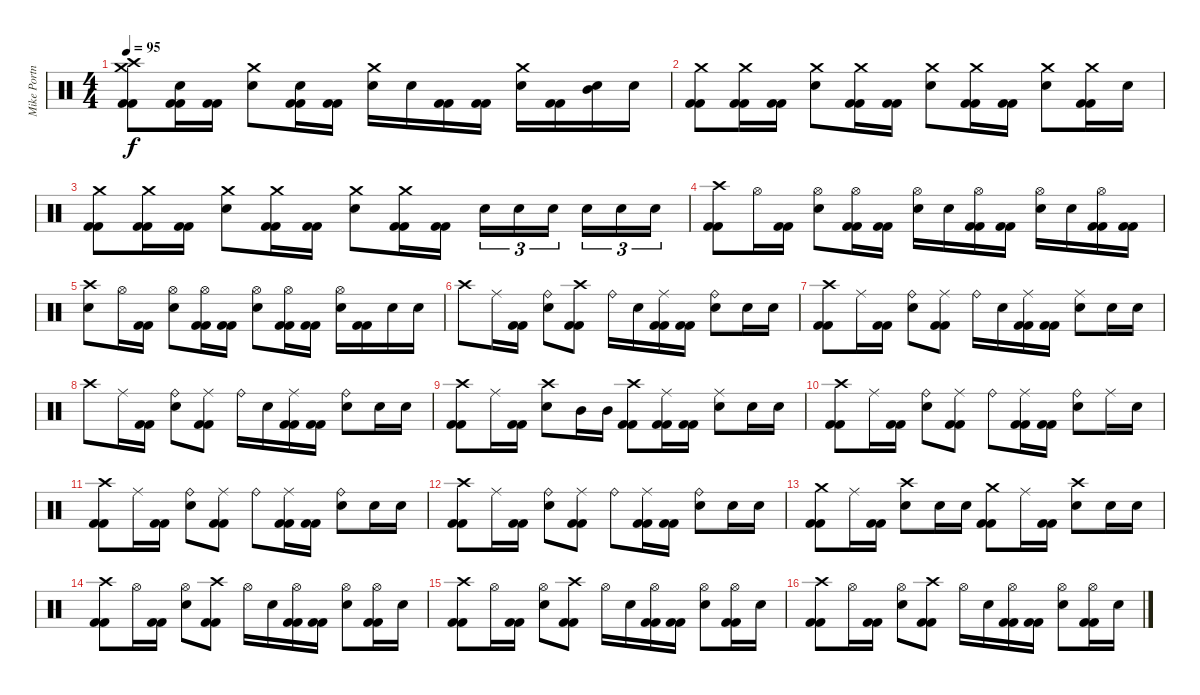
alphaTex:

\track ("Mike Portnoy" "Mike Portn") {instrument percussion}
\staff {score}
\articulation defaults
\ts (4 4)
\tempo 95
\clef neutral
\ks c
("Crash medium (hit)" "Crash high (hit)" "Kick (hit) 2" "Kick (hit) 2").8{dy f} ("Snare (hit) 2" "Kick (hit) 2" "Kick (hit) 2").16 ("Kick (hit) 2" "Kick (hit) 2").16 ("Crash medium (hit)" "Snare (hit) 2").8 ("Snare (hit) 2" "Kick (hit) 2" "Kick (hit) 2").16 ("Kick (hit) 2" "Kick (hit) 2").16 ("Crash medium (hit)" "Snare (hit) 2").16 "Snare (hit) 2".16 ("Kick (hit) 2" "Kick (hit) 2").16 ("Kick (hit) 2" "Kick (hit) 2").16 ("Crash medium (hit)" "Snare (hit) 2").16 ("Kick (hit) 2" "Kick (hit) 2").16 ("Snare (hit) 2" "Mid Tom (hit)").16 "Snare (hit) 2".16 |
("Crash medium (hit)" "Kick (hit) 2" "Kick (hit) 2").8 ("Crash medium (hit)" "Kick (hit) 2" "Kick (hit) 2").16 ("Kick (hit) 2" "Kick (hit) 2").16 ("Crash medium (hit)" "Snare (hit) 2").8 ("Crash medium (hit)" "Kick (hit) 2" "Kick (hit) 2").16 ("Kick (hit) 2" "Kick (hit) 2").16 ("Crash medium (hit)" "Snare (hit) 2").8 ("Crash medium (hit)" "Kick (hit) 2" "Kick (hit) 2").16 ("Kick (hit) 2" "Kick (hit) 2").16 ("Crash medium (hit)" "Snare (hit) 2").8 ("Crash medium (hit)" "Kick (hit) 2" "Kick (hit) 2").16 "Snare (hit) 2".16 |
("Crash medium (hit)" "Kick (hit) 2" "Kick (hit) 2").8 ("Crash medium (hit)" "Kick (hit) 2" "Kick (hit) 2").16 ("Kick (hit) 2" "Kick (hit) 2").16 ("Crash medium (hit)" "Snare (hit) 2").8 ("Crash medium (hit)" "Kick (hit) 2" "Kick (hit) 2").16 ("Kick (hit) 2" "Kick (hit) 2").16 ("Crash medium (hit)" "Snare (hit) 2").8 ("Crash medium (hit)" "Kick (hit) 2" "Kick (hit) 2").16 ("Kick (hit) 2" "Kick (hit) 2").16 "Snare (hit) 2".16{tu (3 2)} "Snare (hit) 2".16{tu (3 2)} "Snare (hit) 2".16{tu (3 2)} "Snare (hit) 2".16{tu (3 2)} "Snare (hit) 2".16{tu (3 2)} "Snare (hit) 2".16{tu (3 2)} |
("Crash high (hit)" "Kick (hit) 2" "Kick (hit) 2").8 "Hi-Hat (open)".16 ("Kick (hit) 2" "Kick (hit) 2").16 ("Hi-Hat (open)" "Snare (hit) 2").8 ("Hi-Hat (open)" "Kick (hit) 2" "Kick (hit) 2").16 ("Kick (hit) 2" "Kick (hit) 2").16 ("Hi-Hat (open)" "Snare (hit) 2").16 "Snare (hit) 2".16 ("Hi-Hat (open)" "Kick (hit) 2" "Kick (hit) 2").16 ("Kick (hit) 2" "Kick (hit) 2").16 ("Hi-Hat (open)" "Snare (hit) 2").16 "Snare (hit) 2".16 ("Hi-Hat (open)" "Kick (hit) 2" "Kick (hit) 2").16 ("Kick (hit) 2" "Kick (hit) 2").16 |
("Crash high (hit)" "Snare (hit) 2").8 "Hi-Hat (open)".16 ("Kick (hit) 2" "Kick (hit) 2").16 ("Hi-Hat (open)" "Snare (hit) 2").8 ("Hi-Hat (open)" "Kick (hit) 2" "Kick (hit) 2").16 ("Kick (hit) 2" "Kick (hit) 2").16 ("Hi-Hat (open)" "Snare (hit) 2").8 ("Hi-Hat (open)" "Kick (hit) 2" "Kick (hit) 2").16 ("Kick (hit) 2" "Kick (hit) 2").16 ("Hi-Hat (open)" "Snare (hit) 2").16 ("Kick (hit) 2" "Kick (hit) 2").16 "Snare (hit) 2".16 "Snare (hit) 2".16 |
"Crash high (hit)".8 "Ride (middle)".16 ("Kick (hit) 2" "Kick (hit) 2").16 ("Ride (bell)" "Snare (hit) 2").8 ("Crash high (hit)" "Kick (hit) 2" "Kick (hit) 2").8 "Ride (bell)".16 "Snare (hit) 2".16 ("Ride (middle)" "Kick (hit) 2" "Kick (hit) 2").16 ("Kick (hit) 2" "Kick (hit) 2").16 ("Ride (bell)" "Snare (hit) 2").8 "Snare (hit) 2".16 "Snare (hit) 2".16 |
("Crash high (hit)" "Kick (hit) 2" "Kick (hit) 2").8 "Ride (middle)".16 ("Kick (hit) 2" "Kick (hit) 2").16 ("Ride (bell)" "Snare (hit) 2").8 ("Ride (middle)" "Kick (hit) 2" "Kick (hit) 2").8 "Ride (bell)".16 "Snare (hit) 2".16 ("Ride (middle)" "Kick (hit) 2" "Kick (hit) 2").16 ("Kick (hit) 2" "Kick (hit) 2").16 ("Ride (middle)" "Snare (hit) 2").8 "Snare (hit) 2".16 "Snare (hit) 2".16 |
"Crash high (hit)".8 "Ride (middle)".16 ("Kick (hit) 2" "Kick (hit) 2").16 ("Ride (bell)" "Snare (hit) 2").8 ("Ride (middle)" "Kick (hit) 2" "Kick (hit) 2").8 "Ride (bell)".16 "Snare (hit) 2".16 ("Ride (middle)" "Kick (hit) 2" "Kick (hit) 2").16 ("Kick (hit) 2" "Kick (hit) 2").16 ("Ride (bell)" "Snare (hit) 2").8 "Snare (hit) 2".16 "Snare (hit) 2".16 |
("Crash high (hit)" "Kick (hit) 2" "Kick (hit) 2").8 "Ride (middle)".16 ("Kick (hit) 2" "Kick (hit) 2").16 ("Crash high (hit)" "Snare (hit) 2").8 "Mid Tom (hit)".16 "Mid Tom (hit)".16 ("Crash high (hit)" "Kick (hit) 2" "Kick (hit) 2").8 ("Ride (middle)" "Kick (hit) 2" "Kick (hit) 2").16 ("Kick (hit) 2" "Kick (hit) 2").16 ("Ride (middle)" "Snare (hit) 2").8 "Snare (hit) 2".16 "Snare (hit) 2".16 |
("Crash high (hit)" "Kick (hit) 2" "Kick (hit) 2").8 "Ride (middle)".16 ("Kick (hit) 2" "Kick (hit) 2").16 ("Ride (bell)" "Snare (hit) 2").8 ("Ride (middle)" "Kick (hit) 2" "Kick (hit) 2").8 "Ride (bell)".8 ("Ride (middle)" "Kick (hit) 2" "Kick (hit) 2").16 ("Kick (hit) 2" "Kick (hit) 2").16 ("Ride (bell)" "Snare (hit) 2").8 "Ride (middle)".16 "Snare (hit) 2".16 |
("Crash high (hit)" "Kick (hit) 2" "Kick (hit) 2").8 "Ride (middle)".16 ("Kick (hit) 2" "Kick (hit) 2").16 ("Ride (bell)" "Snare (hit) 2").8 ("Ride (middle)" "Kick (hit) 2" "Kick (hit) 2").8 "Ride (bell)".8 ("Ride (middle)" "Kick (hit) 2" "Kick (hit) 2").16 ("Kick (hit) 2" "Kick (hit) 2").16 ("Ride (bell)" "Snare (hit) 2").8 "Snare (hit) 2".16 "Snare (hit) 2".16 |
("Crash high (hit)" "Kick (hit) 2" "Kick (hit) 2").8 "Ride (middle)".16 ("Kick (hit) 2" "Kick (hit) 2").16 ("Ride (bell)" "Snare (hit) 2").8 ("Ride (middle)" "Kick (hit) 2" "Kick (hit) 2").8 "Ride (bell)".8 ("Ride (middle)" "Kick (hit) 2" "Kick (hit) 2").16 ("Kick (hit) 2" "Kick (hit) 2").16 ("Ride (bell)" "Snare (hit) 2").8 "Snare (hit) 2".16 "Snare (hit) 2".16 |
("Crash medium (hit)" "Kick (hit) 2" "Kick (hit) 2").8 "Ride (middle)".16 ("Kick (hit) 2" "Kick (hit) 2").16 ("Crash high (hit)" "Snare (hit) 2").8 "Snare (hit) 2".16 "Snare (hit) 2".16 ("Crash medium (hit)" "Kick (hit) 2" "Kick (hit) 2").8 "Ride (middle)".16 ("Kick (hit) 2" "Kick (hit) 2").16 ("Crash high (hit)" "Snare (hit) 2").8 "Snare (hit) 2".16 "Snare (hit) 2".16 |
("Crash high (hit)" "Kick (hit) 2" "Kick (hit) 2").8 "Hi-Hat (open)".16 ("Kick (hit) 2" "Kick (hit) 2").16 ("Hi-Hat (open)" "Snare (hit) 2").8 ("Crash high (hit)" "Kick (hit) 2" "Kick (hit) 2").8 "Hi-Hat (open)".16 "Snare (hit) 2".16 ("Hi-Hat (open)" "Kick (hit) 2" "Kick (hit) 2").16 ("Kick (hit) 2" "Kick (hit) 2").16 ("Hi-Hat (open)" "Snare (hit) 2").8 ("Hi-Hat (open)" "Kick (hit) 2" "Kick (hit) 2").16 "Snare (hit) 2".16 |
("Crash high (hit)" "Kick (hit) 2" "Kick (hit) 2").8 "Hi-Hat (open)".16 ("Kick (hit) 2" "Kick (hit) 2").16 ("Hi-Hat (open)" "Snare (hit) 2").8 ("Crash high (hit)" "Kick (hit) 2" "Kick (hit) 2").8 "Hi-Hat (open)".16 "Snare (hit) 2".16 ("Hi-Hat (open)" "Kick (hit) 2" "Kick (hit) 2").16 ("Kick (hit) 2" "Kick (hit) 2").16 ("Hi-Hat (open)" "Snare (hit) 2").8 ("Hi-Hat (open)" "Kick (hit) 2" "Kick (hit) 2").16 "Snare (hit) 2".16 |
("Crash high (hit)" "Kick (hit) 2" "Kick (hit) 2").8 "Hi-Hat (open)".16 ("Kick (hit) 2" "Kick (hit) 2").16 ("Hi-Hat (open)" "Snare (hit) 2").8 ("Crash high (hit)" "Kick (hit) 2" "Kick (hit) 2").8 "Hi-Hat (open)".16 "Snare (hit) 2".16 ("Hi-Hat (open)" "Kick (hit) 2" "Kick (hit) 2").16 ("Kick (hit) 2" "Kick (hit) 2").16 ("Hi-Hat (open)" "Snare (hit) 2").8 ("Hi-Hat (open)" "Kick (hit) 2" "Kick (hit) 2").16 "Snare (hit) 2".16
